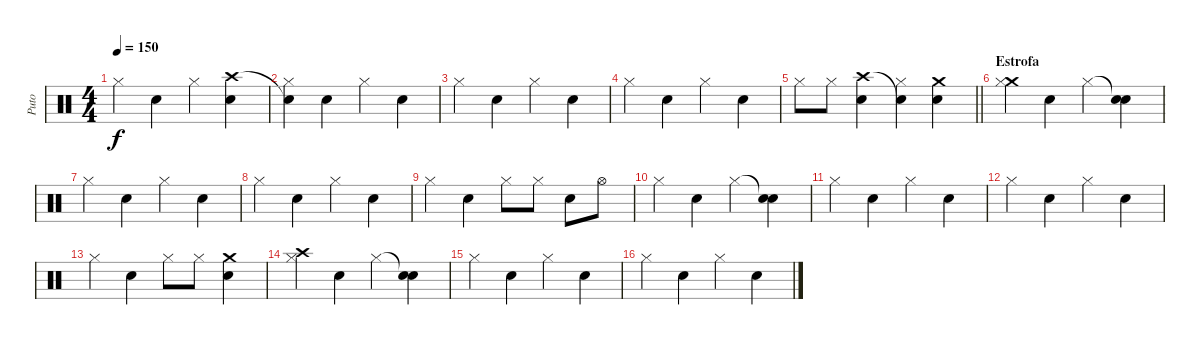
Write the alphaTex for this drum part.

\track ("Puto" "Puto") {instrument percussion}
\staff {score}
\articulation defaults
\ts (4 4)
\tempo 150
\clef neutral
\ks c "Hi-Hat (closed)".4{dy f} "Electric Snare (hit)".4 "Hi-Hat (closed)".4
("Crash high (hit)" "Electric Snare (hit)").4 |
("Snare (hit)"{t} "Hi-Hat (closed)").4 "Electric Snare (hit)".4 "Hi-Hat (closed)".4 "Electric Snare (hit)".4 |
"Hi-Hat (closed)".4 "Electric Snare (hit)".4 "Hi-Hat (closed)".4 "Electric Snare (hit)".4 |
"Hi-Hat (closed)".4 "Electric Snare (hit)".4 "Hi-Hat (closed)".4 "Electric Snare (hit)".4 |
\barLineRight lightlight "Hi-Hat (closed)".8 "Hi-Hat (closed)".8
("Crash high (hit)" "Electric Snare (hit)").4 ("Snare (hit)"{t} "Hi-Hat (closed)").4 ("Crash medium (hit)" "Electric Snare (hit)").4 |
\section ("" "Estrofa")
("Crash medium (hit)" "Hi-Hat (closed)").4 "Electric Snare (hit)".4 "Hi-Hat (closed)".4 ("Snare (hit)"{t} "Electric Snare (hit)").4 |
"Hi-Hat (closed)".4 "Electric Snare (hit)".4 "Hi-Hat (closed)".4 "Electric Snare (hit)".4 |
"Hi-Hat (closed)".4 "Electric Snare (hit)".4 "Hi-Hat (closed)".4 "Electric Snare (hit)".4 |
"Hi-Hat (closed)".4 "Electric Snare (hit)".4 "Hi-Hat (closed)".8 "Hi-Hat (closed)".8 "Electric Snare (hit)".8 "Hi-Hat (open)".8 |
"Hi-Hat (closed)".4 "Electric Snare (hit)".4 "Hi-Hat (closed)".4 ("Snare (hit)"{t} "Electric Snare (hit)").4 |
"Hi-Hat (closed)".4 "Electric Snare (hit)".4 "Hi-Hat (closed)".4 "Electric Snare (hit)".4 |
"Hi-Hat (closed)".4 "Electric Snare (hit)".4 "Hi-Hat (closed)".4 "Electric Snare (hit)".4 |
"Hi-Hat (closed)".4 "Electric Snare (hit)".4 "Hi-Hat (closed)".8 "Hi-Hat (closed)".8 ("Crash medium (hit)" "Electric Snare (hit)").4 |
("Crash high (hit)" "Hi-Hat (closed)").4 "Electric Snare (hit)".4 "Hi-Hat (closed)".4 ("Snare (hit)"{t} "Electric Snare (hit)").4 |
"Hi-Hat (closed)".4 "Electric Snare (hit)".4 "Hi-Hat (closed)".4 "Electric Snare (hit)".4 |
"Hi-Hat (closed)".4 "Electric Snare (hit)".4 "Hi-Hat (closed)".4 "Electric Snare (hit)".4
